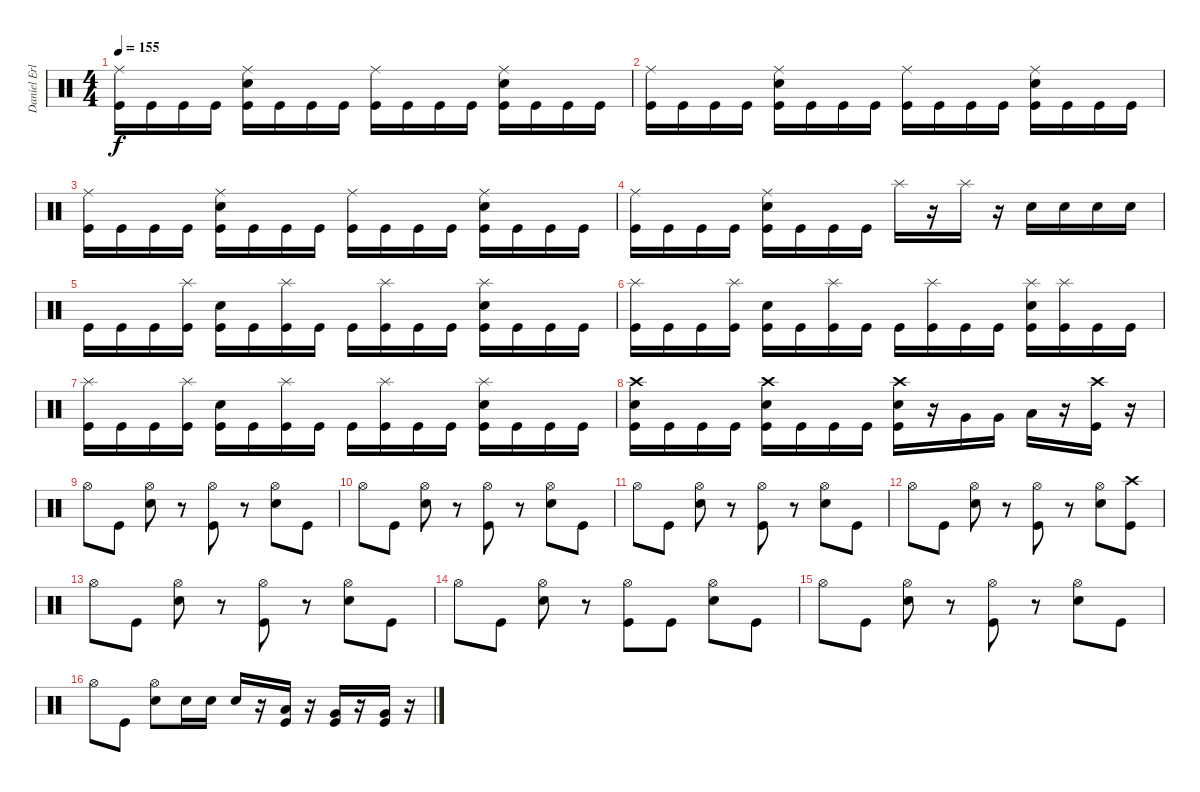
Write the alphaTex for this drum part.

\track ("Daniel Erlandsson" "Daniel Erl") {instrument percussion}
\staff {score}
\articulation defaults
\ts (4 4)
\tempo 155
\clef neutral
\ks c
("Ride (middle)" "Kick (hit)").16{dy f} "Kick (hit)".16 "Kick (hit)".16 "Kick (hit)".16 ("Ride (middle)" "Snare (hit) 2" "Kick (hit)").16 "Kick (hit)".16 "Kick (hit)".16 "Kick (hit)".16 ("Ride (middle)" "Kick (hit)").16 "Kick (hit)".16 "Kick (hit)".16 "Kick (hit)".16 ("Ride (middle)" "Snare (hit) 2" "Kick (hit)").16 "Kick (hit)".16 "Kick (hit)".16 "Kick (hit)".16 |
("Ride (middle)" "Kick (hit)").16 "Kick (hit)".16 "Kick (hit)".16 "Kick (hit)".16 ("Ride (middle)" "Snare (hit) 2" "Kick (hit)").16 "Kick (hit)".16 "Kick (hit)".16 "Kick (hit)".16 ("Ride (middle)" "Kick (hit)").16 "Kick (hit)".16 "Kick (hit)".16 "Kick (hit)".16 ("Ride (middle)" "Snare (hit) 2" "Kick (hit)").16 "Kick (hit)".16 "Kick (hit)".16 "Kick (hit)".16 |
("Ride (middle)" "Kick (hit)").16 "Kick (hit)".16 "Kick (hit)".16 "Kick (hit)".16 ("Ride (middle)" "Snare (hit) 2" "Kick (hit)").16 "Kick (hit)".16 "Kick (hit)".16 "Kick (hit)".16 ("Ride (middle)" "Kick (hit)").16 "Kick (hit)".16 "Kick (hit)".16 "Kick (hit)".16 ("Ride (middle)" "Snare (hit) 2" "Kick (hit)").16 "Kick (hit)".16 "Kick (hit)".16 "Kick (hit)".16 |
("Ride (middle)" "Kick (hit)").16 "Kick (hit)".16 "Kick (hit)".16 "Kick (hit)".16 ("Ride (middle)" "Snare (hit) 2" "Kick (hit)").16 "Kick (hit)".16 "Kick (hit)".16 "Kick (hit)".16 "Splash (hit)".16 r.16 "Splash (hit)".16 r.16 "Snare (hit) 2".16 "Snare (hit) 2".16 "Snare (hit) 2".16 "Snare (hit) 2".16 |
"Kick (hit)".16 "Kick (hit)".16 "Kick (hit)".16 ("Splash (hit)" "Kick (hit)").16 ("Snare (hit) 2" "Kick (hit)").16 "Kick (hit)".16 ("Splash (hit)" "Kick (hit)").16 "Kick (hit)".16 "Kick (hit)".16 ("Splash (hit)" "Kick (hit)").16 "Kick (hit)".16 "Kick (hit)".16 ("Splash (hit)" "Snare (hit) 2" "Kick (hit)").16 "Kick (hit)".16 "Kick (hit)".16 "Kick (hit)".16 |
("Splash (hit)" "Kick (hit)").16 "Kick (hit)".16 "Kick (hit)".16 ("Splash (hit)" "Kick (hit)").16 ("Snare (hit) 2" "Kick (hit)").16 "Kick (hit)".16 ("Splash (hit)" "Kick (hit)").16 "Kick (hit)".16 "Kick (hit)".16 ("Splash (hit)" "Kick (hit)").16 "Kick (hit)".16 "Kick (hit)".16 ("Splash (hit)" "Snare (hit) 2" "Kick (hit)").16 ("Splash (hit)" "Kick (hit)").16 "Kick (hit)".16 "Kick (hit)".16 |
("Splash (hit)" "Kick (hit)").16 "Kick (hit)".16 "Kick (hit)".16 ("Splash (hit)" "Kick (hit)").16 ("Snare (hit) 2" "Kick (hit)").16 "Kick (hit)".16 ("Splash (hit)" "Kick (hit)").16 "Kick (hit)".16 "Kick (hit)".16 ("Splash (hit)" "Kick (hit)").16 "Kick (hit)".16 "Kick (hit)".16 ("Splash (hit)" "Snare (hit) 2" "Kick (hit)").16 "Kick (hit)".16 "Kick (hit)".16 "Kick (hit)".16 |
("Crash high (hit)" "Snare (hit) 2" "Kick (hit)").16 "Kick (hit)".16 "Kick (hit)".16 "Kick (hit)".16 ("Crash high (hit)" "Snare (hit) 2" "Kick (hit)").16 "Kick (hit)".16 "Kick (hit)".16 "Kick (hit)".16 ("Crash high (hit)" "Snare (hit) 2" "Kick (hit)").16 r.16 "Very Low Tom (hit)".16 "Very Low Tom (hit)".16 "Low Floor Tom (hit)".16 r.16 ("Crash high (hit)" "Kick (hit)").16 r.16 |
"Hi-Hat (open)".8 "Kick (hit)".8 ("Hi-Hat (open)" "Snare (hit) 2").8 r.8 ("Hi-Hat (open)" "Kick (hit)").8 r.8 ("Hi-Hat (open)" "Snare (hit) 2").8 "Kick (hit)".8 |
"Hi-Hat (open)".8 "Kick (hit)".8 ("Hi-Hat (open)" "Snare (hit) 2").8 r.8 ("Hi-Hat (open)" "Kick (hit)").8 r.8 ("Hi-Hat (open)" "Snare (hit) 2").8 "Kick (hit)".8 |
"Hi-Hat (open)".8 "Kick (hit)".8 ("Hi-Hat (open)" "Snare (hit) 2").8 r.8 ("Hi-Hat (open)" "Kick (hit)").8 r.8 ("Hi-Hat (open)" "Snare (hit) 2").8 "Kick (hit)".8 |
"Hi-Hat (open)".8 "Kick (hit)".8 ("Hi-Hat (open)" "Snare (hit) 2").8 r.8 ("Hi-Hat (open)" "Kick (hit)").8 r.8 ("Hi-Hat (open)" "Snare (hit) 2").8 ("Crash high (hit)" "Kick (hit)").8 |
"Hi-Hat (open)".8 "Kick (hit)".8 ("Hi-Hat (open)" "Snare (hit) 2").8 r.8 ("Hi-Hat (open)" "Kick (hit)").8 r.8 ("Hi-Hat (open)" "Snare (hit) 2").8 "Kick (hit)".8 |
"Hi-Hat (open)".8 "Kick (hit)".8 ("Hi-Hat (open)" "Snare (hit) 2").8 r.8 ("Hi-Hat (open)" "Kick (hit)").8 "Kick (hit)".8 ("Hi-Hat (open)" "Snare (hit) 2").8 "Kick (hit)".8 |
"Hi-Hat (open)".8 "Kick (hit)".8 ("Hi-Hat (open)" "Snare (hit) 2").8 r.8 ("Hi-Hat (open)" "Kick (hit)").8 r.8 ("Hi-Hat (open)" "Snare (hit) 2").8 "Kick (hit)".8 |
"Hi-Hat (open)".8 "Kick (hit)".8 ("Hi-Hat (open)" "Snare (hit) 2").8 "Snare (hit) 2".16 "Snare (hit) 2".16 "Snare (hit) 2".16 r.16 ("Low Tom (hit)" "Kick (hit)").16 r.16 ("Very Low Tom (hit)" "Kick (hit)").16 r.16 ("Very Low Tom (hit)" "Kick (hit)").16 r.16
